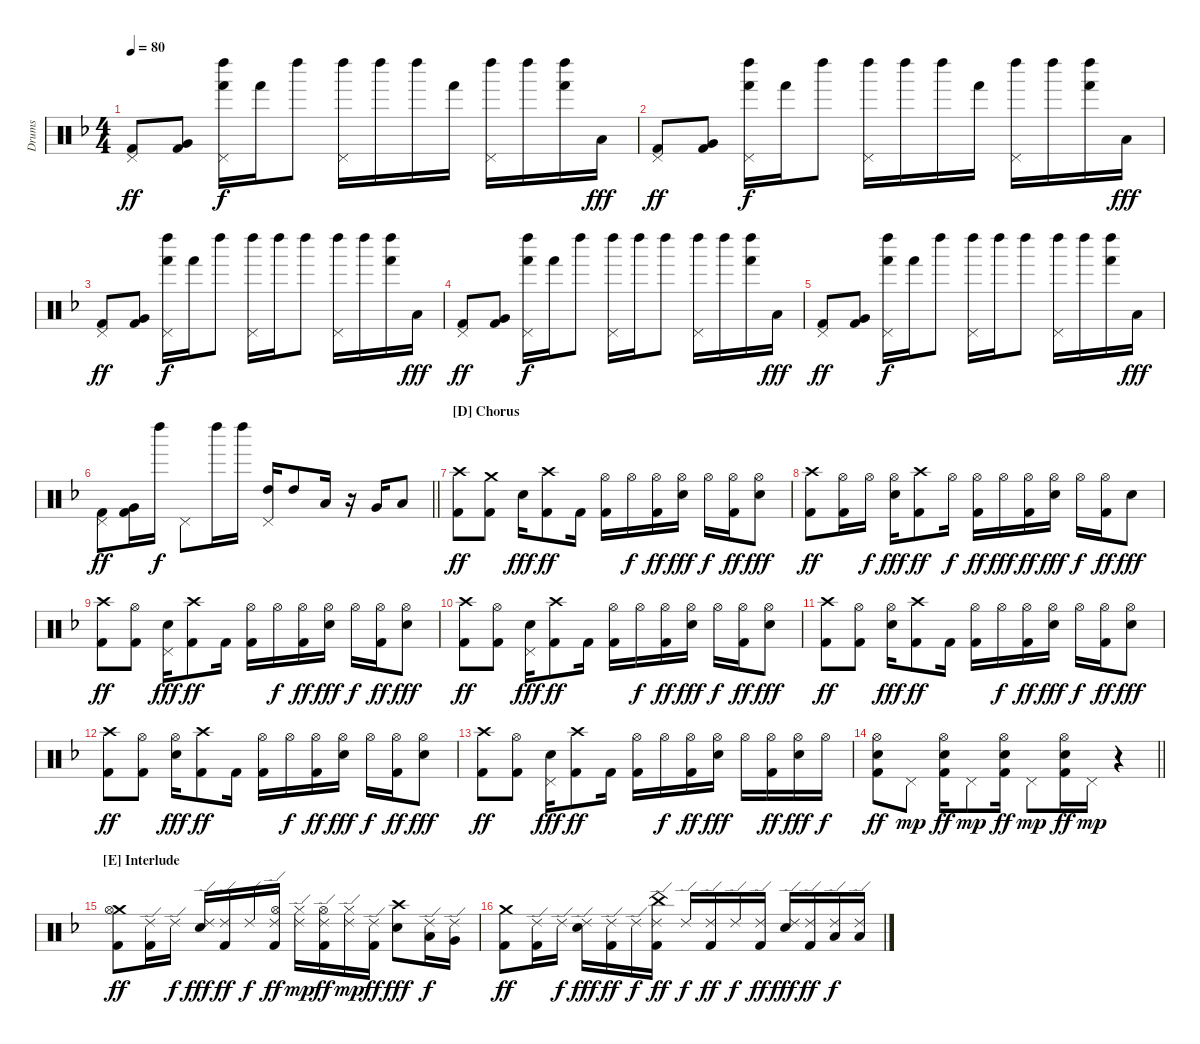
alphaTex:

\track ("Drums" "Drums") {instrument percussion}
\staff {score}
\articulation defaults
\ts (4 4)
\tempo 80
\clef neutral
\ks dminor
("Pedal Hi-Hat (hit)" "Kick (hit) 2").8{dy ff} ("Very Low Tom (hit)" "Kick (hit) 2").8 ("Pedal Hi-Hat (hit)" "Left Maraca (hit)" "Hand (hit)").16{dy f} "Hand (hit)".16 "Left Maraca (hit)".8 ("Pedal Hi-Hat (hit)" "Left Maraca (hit)").16 "Left Maraca (hit)".16 "Left Maraca (hit)".16 "Hand (hit)".16 ("Pedal Hi-Hat (hit)" "Left Maraca (hit)").16 "Left Maraca (hit)".16 ("Left Maraca (hit)" "Hand (hit)").16 "Low Floor Tom (hit)".16{dy fff} |
("Pedal Hi-Hat (hit)" "Kick (hit) 2").8{dy ff} ("Very Low Tom (hit)" "Kick (hit) 2").8 ("Pedal Hi-Hat (hit)" "Left Maraca (hit)" "Hand (hit)").16{dy f} "Hand (hit)".16 "Left Maraca (hit)".8 ("Pedal Hi-Hat (hit)" "Left Maraca (hit)").16 "Left Maraca (hit)".16 "Left Maraca (hit)".16 "Hand (hit)".16 ("Pedal Hi-Hat (hit)" "Left Maraca (hit)").16 "Left Maraca (hit)".16 ("Left Maraca (hit)" "Hand (hit)").16 "Low Floor Tom (hit)".16{dy fff} |
("Pedal Hi-Hat (hit)" "Kick (hit) 2").8{dy ff} ("Very Low Tom (hit)" "Kick (hit) 2").8 ("Pedal Hi-Hat (hit)" "Left Maraca (hit)" "Hand (hit)").16{dy f} "Hand (hit)".16 "Left Maraca (hit)".8 ("Pedal Hi-Hat (hit)" "Left Maraca (hit)").16 "Left Maraca (hit)".16 "Left Maraca (hit)".8 ("Pedal Hi-Hat (hit)" "Left Maraca (hit)").16 "Left Maraca (hit)".16 ("Left Maraca (hit)" "Hand (hit)").16 "Low Floor Tom (hit)".16{dy fff} |
("Pedal Hi-Hat (hit)" "Kick (hit) 2").8{dy ff} ("Very Low Tom (hit)" "Kick (hit) 2").8 ("Pedal Hi-Hat (hit)" "Left Maraca (hit)" "Hand (hit)").16{dy f} "Hand (hit)".16 "Left Maraca (hit)".8 ("Pedal Hi-Hat (hit)" "Left Maraca (hit)").16 "Left Maraca (hit)".16 "Left Maraca (hit)".8 ("Pedal Hi-Hat (hit)" "Left Maraca (hit)").16 "Left Maraca (hit)".16 ("Left Maraca (hit)" "Hand (hit)").16 "Low Floor Tom (hit)".16{dy fff} |
("Pedal Hi-Hat (hit)" "Kick (hit) 2").8{dy ff} ("Very Low Tom (hit)" "Kick (hit) 2").8 ("Pedal Hi-Hat (hit)" "Left Maraca (hit)" "Hand (hit)").16{dy f} "Hand (hit)".16 "Left Maraca (hit)".8 ("Pedal Hi-Hat (hit)" "Left Maraca (hit)").16 "Left Maraca (hit)".16 "Left Maraca (hit)".8 ("Pedal Hi-Hat (hit)" "Left Maraca (hit)").16 "Left Maraca (hit)".16 ("Left Maraca (hit)" "Hand (hit)").16 "Low Floor Tom (hit)".16{dy fff} |
\barLineRight lightlight
("Pedal Hi-Hat (hit)" "Kick (hit) 2").8{dy ff} ("Very Low Tom (hit)" "Kick (hit) 2").16 "Left Maraca (hit)".16{dy f} "Pedal Hi-Hat (hit)".8 "Left Maraca (hit)".16 "Left Maraca (hit)".16 ("Pedal Hi-Hat (hit)" "High Tom (hit)").16 "High Tom (hit)".8 "Low Tom (hit)".16 r.16 "Very Low Tom (hit)".16 "Low Floor Tom (hit)".8 |
\section ("" "[D] Chorus")
("Crash high (hit)" "Kick (hit) 2").8{dy ff} ("Crash medium (hit)" "Kick (hit) 2").8 "Electric Snare (hit)".16{dy fff} ("Crash high (hit)" "Kick (hit) 2").8{dy ff} "Kick (hit) 2".16 ("Hi-Hat (open)" "Kick (hit) 2").16 "Hi-Hat (open)".16{dy f} ("Hi-Hat (open)" "Kick (hit) 2").16{dy ff} ("Hi-Hat (open)" "Electric Snare (hit)").16{dy fff} "Hi-Hat (open)".16{dy f} ("Hi-Hat (open)" "Kick (hit) 2").16{dy ff} ("Hi-Hat (open)" "Electric Snare (hit)").8{dy fff} |
("Crash high (hit)" "Kick (hit) 2").8{dy ff} ("Hi-Hat (open)" "Kick (hit) 2").16 "Hi-Hat (open)".16{dy f} ("Hi-Hat (open)" "Electric Snare (hit)").16{dy fff} ("Crash high (hit)" "Kick (hit) 2").8{dy ff} "Hi-Hat (open)".16{dy f} ("Hi-Hat (open)" "Kick (hit) 2").16{dy ff} "Hi-Hat (open)".16{dy fff} ("Hi-Hat (open)" "Kick (hit) 2").16{dy ff} ("Hi-Hat (open)" "Electric Snare (hit)").16{dy fff} "Hi-Hat (open)".16{dy f} ("Hi-Hat (open)" "Kick (hit) 2").16{dy ff} "Electric Snare (hit)".8{dy fff} |
("Crash high (hit)" "Kick (hit) 2").8{dy ff} ("Hi-Hat (open)" "Kick (hit) 2").8 ("Pedal Hi-Hat (hit)" "Electric Snare (hit)").16{dy fff} ("Crash high (hit)" "Kick (hit) 2").8{dy ff} "Kick (hit) 2".16 ("Hi-Hat (open)" "Kick (hit) 2").16 "Hi-Hat (open)".16{dy f} ("Hi-Hat (open)" "Kick (hit) 2").16{dy ff} ("Hi-Hat (open)" "Electric Snare (hit)").16{dy fff} "Hi-Hat (open)".16{dy f} ("Hi-Hat (open)" "Kick (hit) 2").16{dy ff} ("Hi-Hat (open)" "Electric Snare (hit)").8{dy fff} |
("Crash high (hit)" "Kick (hit) 2").8{dy ff} ("Hi-Hat (open)" "Kick (hit) 2").8 ("Pedal Hi-Hat (hit)" "Electric Snare (hit)").16{dy fff} ("Crash high (hit)" "Kick (hit) 2").8{dy ff} "Kick (hit) 2".16 ("Hi-Hat (open)" "Kick (hit) 2").16 "Hi-Hat (open)".16{dy f} ("Hi-Hat (open)" "Kick (hit) 2").16{dy ff} ("Hi-Hat (open)" "Electric Snare (hit)").16{dy fff} "Hi-Hat (open)".16{dy f} ("Hi-Hat (open)" "Kick (hit) 2").16{dy ff} ("Hi-Hat (open)" "Electric Snare (hit)").8{dy fff} |
("Crash high (hit)" "Kick (hit) 2").8{dy ff} ("Hi-Hat (open)" "Kick (hit) 2").8 ("Hi-Hat (open)" "Electric Snare (hit)").16{dy fff} ("Crash high (hit)" "Kick (hit) 2").8{dy ff} "Kick (hit) 2".16 ("Hi-Hat (open)" "Kick (hit) 2").16 "Hi-Hat (open)".16{dy f} ("Hi-Hat (open)" "Kick (hit) 2").16{dy ff} ("Hi-Hat (open)" "Electric Snare (hit)").16{dy fff} "Hi-Hat (open)".16{dy f} ("Hi-Hat (open)" "Kick (hit) 2").16{dy ff} ("Hi-Hat (open)" "Electric Snare (hit)").8{dy fff} |
("Crash high (hit)" "Kick (hit) 2").8{dy ff} ("Hi-Hat (open)" "Kick (hit) 2").8 ("Hi-Hat (open)" "Electric Snare (hit)").16{dy fff} ("Crash high (hit)" "Kick (hit) 2").8{dy ff} "Kick (hit) 2".16 ("Hi-Hat (open)" "Kick (hit) 2").16 "Hi-Hat (open)".16{dy f} ("Hi-Hat (open)" "Kick (hit) 2").16{dy ff} ("Hi-Hat (open)" "Electric Snare (hit)").16{dy fff} "Hi-Hat (open)".16{dy f} ("Hi-Hat (open)" "Kick (hit) 2").16{dy ff} ("Hi-Hat (open)" "Electric Snare (hit)").8{dy fff} |
("Crash high (hit)" "Kick (hit) 2").8{dy ff} ("Hi-Hat (open)" "Kick (hit) 2").8 ("Pedal Hi-Hat (hit)" "Electric Snare (hit)").16{dy fff} ("Crash high (hit)" "Kick (hit) 2").8{dy ff} "Kick (hit) 2".16 ("Hi-Hat (open)" "Kick (hit) 2").16 "Hi-Hat (open)".16{dy f} ("Hi-Hat (open)" "Kick (hit) 2").16{dy ff} ("Hi-Hat (open)" "Electric Snare (hit)").16{dy fff} "Hi-Hat (open)".16 ("Hi-Hat (open)" "Kick (hit) 2").16{dy ff} ("Hi-Hat (open)" "Electric Snare (hit)").16{dy fff} "Hi-Hat (open)".16{dy f} |
\barLineRight lightlight
("Hi-Hat (open)" "Electric Snare (hit)" "Kick (hit) 2").8{dy ff} "Pedal Hi-Hat (hit)".8{dy mp} ("Hi-Hat (open)" "Electric Snare (hit)" "Kick (hit) 2").16{dy ff} "Pedal Hi-Hat (hit)".8{dy mp} ("Hi-Hat (open)" "Electric Snare (hit)" "Kick (hit) 2").16{dy ff} "Pedal Hi-Hat (hit)".8{dy mp} ("Hi-Hat (open)" "Electric Snare (hit)" "Kick (hit) 2").16{dy ff} "Pedal Hi-Hat (hit)".16{dy mp} r.4 |
\section ("" "[E] Interlude")
("Crash medium (hit)" "Hi-Hat (open)" "Kick (hit) 2").8{dy ff} ("Ride (edge) 2" "Kick (hit) 2").16 "Ride (edge) 2".16{dy f} ("Ride (edge) 2" "Electric Snare (hit)").16{dy fff} ("Ride (edge) 2" "Kick (hit) 2").16{dy ff} "Ride (edge) 2".16{dy f} ("Ride (edge) 2" "Hi-Hat (open)" "Kick (hit) 2").16{dy ff} ("Ride (edge) 2" "Hi-Hat (closed)").16{dy mp} ("Ride (edge) 2" "Hi-Hat (open)" "Kick (hit) 2").16{dy ff} ("Ride (edge) 2" "Hi-Hat (closed)").16{dy mp} ("Ride (edge) 2" "Kick (hit) 2").16{dy ff} ("Crash high (hit)" "Electric Snare (hit)").8{dy fff} ("Ride (edge) 2" "Low Tom (hit)").16{dy f} ("Ride (edge) 2" "Very Low Tom (hit)").16 |
("Crash medium (hit)" "Kick (hit) 2").8{dy ff} ("Ride (edge) 2" "Kick (hit) 2").16 "Ride (edge) 2".16{dy f} ("Ride (edge) 2" "Electric Snare (hit)").16{dy fff} ("Ride (edge) 2" "Kick (hit) 2").16{dy ff} "Ride (edge) 2".16{dy f} ("Ride (edge) 2" "China (hit)" "Kick (hit) 2").16{dy ff} "Ride (edge) 2".16{dy f} ("Ride (edge) 2" "Kick (hit) 2").16{dy ff} "Ride (edge) 2".16{dy f} ("Ride (edge) 2" "Kick (hit) 2").16{dy ff} ("Ride (edge) 2" "Electric Snare (hit)").16{dy fff} ("Ride (edge) 2" "Kick (hit) 2").16{dy ff} ("Ride (edge) 2" "Low Tom (hit)").16{dy f} ("Ride (edge) 2" "Low Tom (hit)").16
